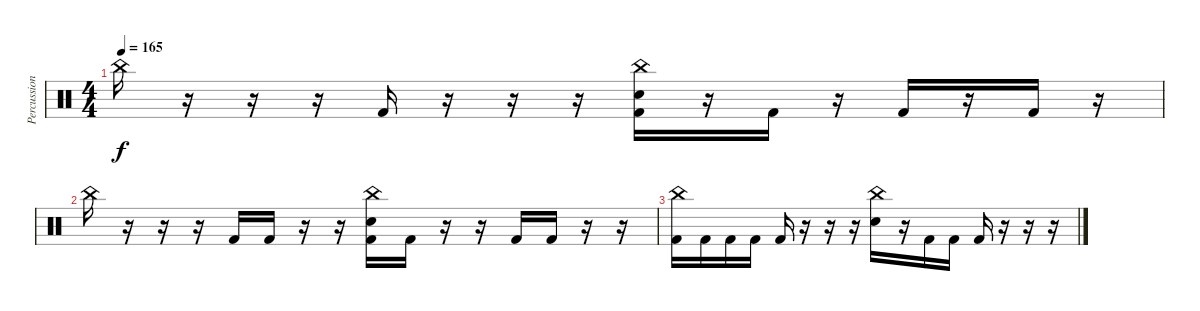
\track ("Percussion" "Percussion") {instrument percussion}
\staff {score}
\articulation defaults
\ts (4 4)
\tempo 165
\clef neutral
\ks c "China (hit)".16{dy f}
r.16 r.16 r.16 "Kick (hit) 2".16 r.16 r.16 r.16 ("China (hit)" "Electric Snare (hit)" "Kick (hit) 2").16 r.16 "Kick (hit) 2".16 r.16 "Kick (hit) 2".16 r.16 "Kick (hit) 2".16 r.16 |
"China (hit)".16 r.16 r.16 r.16 "Kick (hit) 2".16 "Kick (hit) 2".16 r.16 r.16 ("China (hit)" "Electric Snare (hit)" "Kick (hit) 2").16 "Kick (hit) 2".16 r.16 r.16 "Kick (hit) 2".16 "Kick (hit) 2".16 r.16 r.16 |
("China (hit)" "Kick (hit) 2").16 "Kick (hit) 2".16 "Kick (hit) 2".16 "Kick (hit) 2".16 "Kick (hit) 2".16 r.16 r.16 r.16 ("China (hit)" "Electric Snare (hit)").16 r.16 "Kick (hit) 2".16 "Kick (hit) 2".16 "Kick (hit) 2".16 r.16 r.16 r.16
